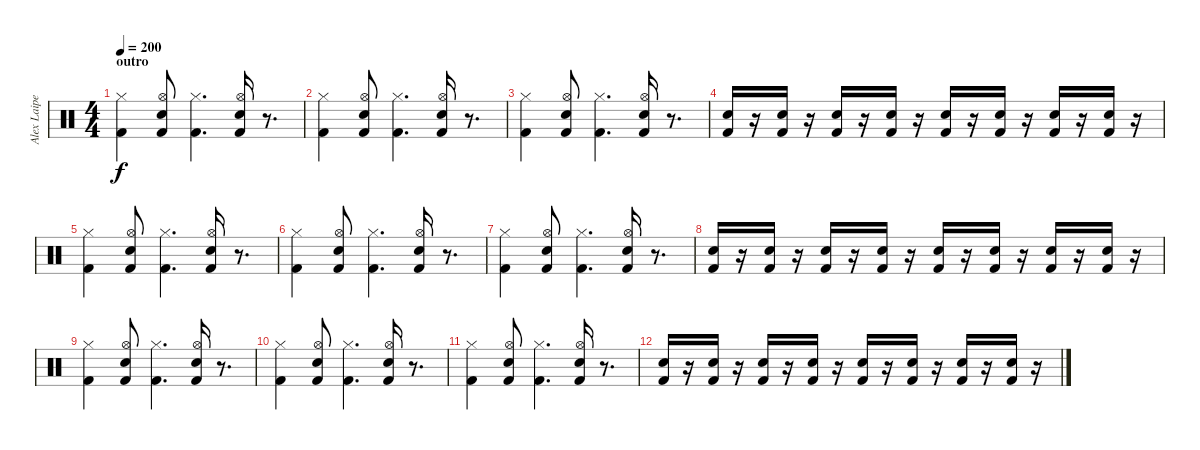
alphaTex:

\track ("Alex Laipeneiks - Drums" "Alex Laipe") {instrument percussion}
\staff {score}
\articulation defaults
\ts (4 4)
\section ("" "outro")
\tempo 200
\clef neutral
\ks c
("Hi-Hat (closed)" "Kick (hit) 2").4{dy f} ("Hi-Hat (open)" "Snare (hit) 2" "Kick (hit) 2").8 ("Hi-Hat (closed)" "Kick (hit) 2").4{d} ("Hi-Hat (open)" "Snare (hit) 2" "Kick (hit) 2").16 r.8{d} |
("Hi-Hat (closed)" "Kick (hit) 2").4 ("Hi-Hat (open)" "Snare (hit) 2" "Kick (hit) 2").8 ("Hi-Hat (closed)" "Kick (hit) 2").4{d} ("Hi-Hat (open)" "Snare (hit) 2" "Kick (hit) 2").16 r.8{d} |
("Hi-Hat (closed)" "Kick (hit) 2").4 ("Hi-Hat (open)" "Snare (hit) 2" "Kick (hit) 2").8 ("Hi-Hat (closed)" "Kick (hit) 2").4{d} ("Hi-Hat (open)" "Snare (hit) 2" "Kick (hit) 2").16 r.8{d} |
("Snare (hit) 2" "Kick (hit) 2").16 r.16 ("Snare (hit) 2" "Kick (hit) 2").16 r.16 ("Snare (hit) 2" "Kick (hit) 2").16 r.16 ("Snare (hit) 2" "Kick (hit) 2").16 r.16 ("Snare (hit) 2" "Kick (hit) 2").16 r.16 ("Snare (hit) 2" "Kick (hit) 2").16 r.16 ("Snare (hit) 2" "Kick (hit) 2").16 r.16 ("Snare (hit) 2" "Kick (hit) 2").16 r.16 |
("Hi-Hat (closed)" "Kick (hit) 2").4 ("Hi-Hat (open)" "Snare (hit) 2" "Kick (hit) 2").8 ("Hi-Hat (closed)" "Kick (hit) 2").4{d} ("Hi-Hat (open)" "Snare (hit) 2" "Kick (hit) 2").16 r.8{d} |
("Hi-Hat (closed)" "Kick (hit) 2").4 ("Hi-Hat (open)" "Snare (hit) 2" "Kick (hit) 2").8 ("Hi-Hat (closed)" "Kick (hit) 2").4{d} ("Hi-Hat (open)" "Snare (hit) 2" "Kick (hit) 2").16 r.8{d} |
("Hi-Hat (closed)" "Kick (hit) 2").4 ("Hi-Hat (open)" "Snare (hit) 2" "Kick (hit) 2").8 ("Hi-Hat (closed)" "Kick (hit) 2").4{d} ("Hi-Hat (open)" "Snare (hit) 2" "Kick (hit) 2").16 r.8{d} |
("Snare (hit) 2" "Kick (hit) 2").16 r.16 ("Snare (hit) 2" "Kick (hit) 2").16 r.16 ("Snare (hit) 2" "Kick (hit) 2").16 r.16 ("Snare (hit) 2" "Kick (hit) 2").16 r.16 ("Snare (hit) 2" "Kick (hit) 2").16 r.16 ("Snare (hit) 2" "Kick (hit) 2").16 r.16 ("Snare (hit) 2" "Kick (hit) 2").16 r.16 ("Snare (hit) 2" "Kick (hit) 2").16 r.16 |
("Hi-Hat (closed)" "Kick (hit) 2").4 ("Hi-Hat (open)" "Snare (hit) 2" "Kick (hit) 2").8 ("Hi-Hat (closed)" "Kick (hit) 2").4{d} ("Hi-Hat (open)" "Snare (hit) 2" "Kick (hit) 2").16 r.8{d} |
("Hi-Hat (closed)" "Kick (hit) 2").4 ("Hi-Hat (open)" "Snare (hit) 2" "Kick (hit) 2").8 ("Hi-Hat (closed)" "Kick (hit) 2").4{d} ("Hi-Hat (open)" "Snare (hit) 2" "Kick (hit) 2").16 r.8{d} |
("Hi-Hat (closed)" "Kick (hit) 2").4 ("Hi-Hat (open)" "Snare (hit) 2" "Kick (hit) 2").8 ("Hi-Hat (closed)" "Kick (hit) 2").4{d} ("Hi-Hat (open)" "Snare (hit) 2" "Kick (hit) 2").16 r.8{d} |
("Snare (hit) 2" "Kick (hit) 2").16 r.16 ("Snare (hit) 2" "Kick (hit) 2").16 r.16 ("Snare (hit) 2" "Kick (hit) 2").16 r.16 ("Snare (hit) 2" "Kick (hit) 2").16 r.16 ("Snare (hit) 2" "Kick (hit) 2").16 r.16 ("Snare (hit) 2" "Kick (hit) 2").16 r.16 ("Snare (hit) 2" "Kick (hit) 2").16 r.16 ("Snare (hit) 2" "Kick (hit) 2").16 r.16
